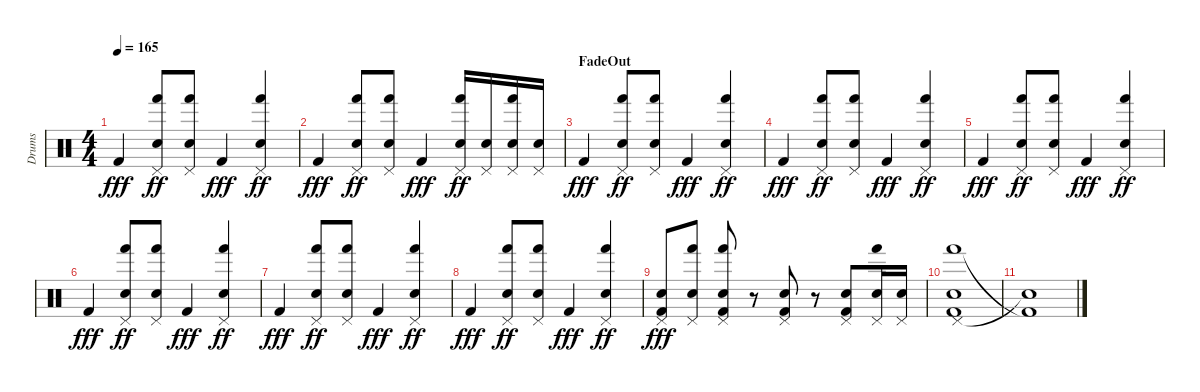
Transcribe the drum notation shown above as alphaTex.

\track ("Drums" "Drums") {instrument percussion}
\staff {score}
\articulation defaults
\ts (4 4)
\tempo 165
\clef neutral
\ks c "Kick (hit) 2".4{dy fff}
("Pedal Hi-Hat (hit)" "Hand (hit)" "Electric Snare (hit)").8{dy ff} ("Pedal Hi-Hat (hit)" "Hand (hit)" "Electric Snare (hit)").8 "Kick (hit) 2".4{dy fff} ("Pedal Hi-Hat (hit)" "Hand (hit)" "Electric Snare (hit)").4{dy ff} |
"Kick (hit) 2".4{dy fff} ("Pedal Hi-Hat (hit)" "Hand (hit)" "Electric Snare (hit)").8{dy ff} ("Pedal Hi-Hat (hit)" "Hand (hit)" "Electric Snare (hit)").8 "Kick (hit) 2".4{dy fff} ("Pedal Hi-Hat (hit)" "Hand (hit)" "Electric Snare (hit)").16{dy ff} ("Pedal Hi-Hat (hit)" "Electric Snare (hit)").16 ("Pedal Hi-Hat (hit)" "Hand (hit)" "Electric Snare (hit)").16 ("Pedal Hi-Hat (hit)" "Electric Snare (hit)").16 |
\section ("" "FadeOut")
"Kick (hit) 2".4{dy fff} ("Pedal Hi-Hat (hit)" "Hand (hit)" "Electric Snare (hit)").8{dy ff} ("Pedal Hi-Hat (hit)" "Hand (hit)" "Electric Snare (hit)").8 "Kick (hit) 2".4{dy fff} ("Pedal Hi-Hat (hit)" "Hand (hit)" "Electric Snare (hit)").4{dy ff} |
"Kick (hit) 2".4{dy fff} ("Pedal Hi-Hat (hit)" "Hand (hit)" "Electric Snare (hit)").8{dy ff} ("Pedal Hi-Hat (hit)" "Hand (hit)" "Electric Snare (hit)").8 "Kick (hit) 2".4{dy fff} ("Pedal Hi-Hat (hit)" "Hand (hit)" "Electric Snare (hit)").4{dy ff} |
"Kick (hit) 2".4{dy fff} ("Pedal Hi-Hat (hit)" "Hand (hit)" "Electric Snare (hit)").8{dy ff} ("Pedal Hi-Hat (hit)" "Hand (hit)" "Electric Snare (hit)").8 "Kick (hit) 2".4{dy fff} ("Pedal Hi-Hat (hit)" "Hand (hit)" "Electric Snare (hit)").4{dy ff} |
"Kick (hit) 2".4{dy fff} ("Pedal Hi-Hat (hit)" "Hand (hit)" "Electric Snare (hit)").8{dy ff} ("Pedal Hi-Hat (hit)" "Hand (hit)" "Electric Snare (hit)").8 "Kick (hit) 2".4{dy fff} ("Pedal Hi-Hat (hit)" "Hand (hit)" "Electric Snare (hit)").4{dy ff} |
"Kick (hit) 2".4{dy fff} ("Pedal Hi-Hat (hit)" "Hand (hit)" "Electric Snare (hit)").8{dy ff} ("Pedal Hi-Hat (hit)" "Hand (hit)" "Electric Snare (hit)").8 "Kick (hit) 2".4{dy fff} ("Pedal Hi-Hat (hit)" "Hand (hit)" "Electric Snare (hit)").4{dy ff} |
"Kick (hit) 2".4{dy fff} ("Pedal Hi-Hat (hit)" "Hand (hit)" "Electric Snare (hit)").8{dy ff} ("Pedal Hi-Hat (hit)" "Hand (hit)" "Electric Snare (hit)").8 "Kick (hit) 2".4{dy fff} ("Pedal Hi-Hat (hit)" "Hand (hit)" "Electric Snare (hit)").4{dy ff} |
("Pedal Hi-Hat (hit)" "Electric Snare (hit)" "Kick (hit) 2").8{dy fff} ("Pedal Hi-Hat (hit)" "Hand (hit)" "Electric Snare (hit)").8 ("Pedal Hi-Hat (hit)" "Hand (hit)" "Electric Snare (hit)" "Kick (hit) 2").8 r.8 ("Pedal Hi-Hat (hit)" "Electric Snare (hit)" "Kick (hit) 2").8 r.8 ("Pedal Hi-Hat (hit)" "Electric Snare (hit)" "Kick (hit) 2").8 ("Pedal Hi-Hat (hit)" "Hand (hit)" "Electric Snare (hit)").16 ("Pedal Hi-Hat (hit)" "Electric Snare (hit)").16 |
("Pedal Hi-Hat (hit)" "Hand (hit)" "Electric Snare (hit)" "Kick (hit) 2").1 |
("Electric Snare (hit)"{t} "Kick (hit) 2"{t}).1
